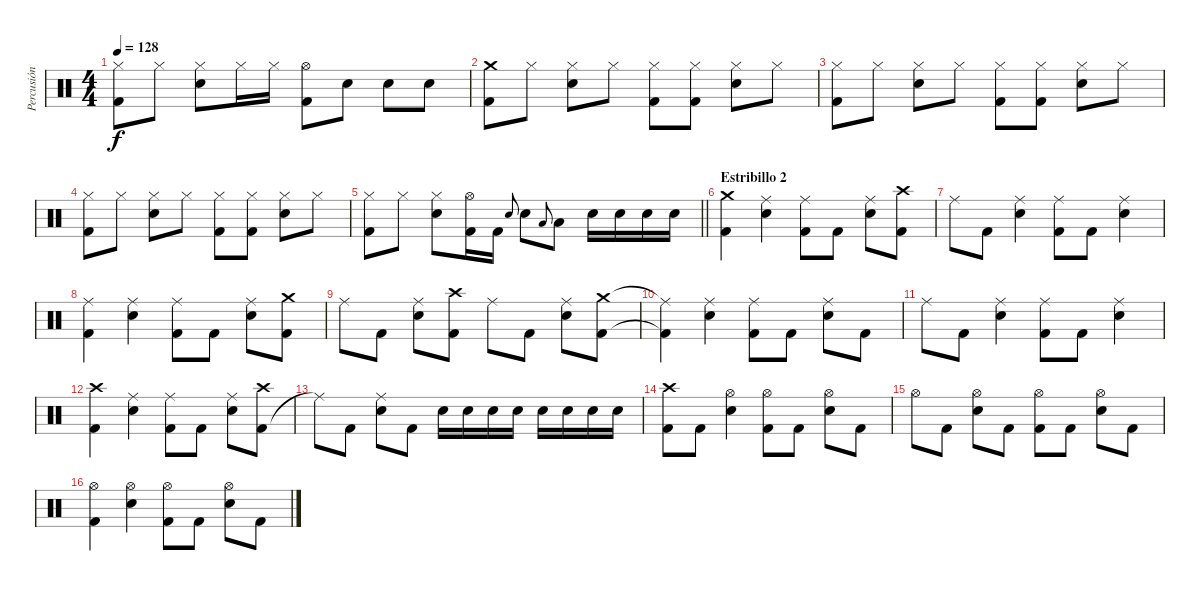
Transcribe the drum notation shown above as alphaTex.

\track ("Percusión" "Percusión") {instrument percussion}
\staff {score}
\articulation defaults
\ts (4 4)
\tempo 128
\clef neutral
\ks c
("Kick (hit) 2" "Hi-Hat (closed)").8{dy f} "Hi-Hat (closed)".8 ("Electric Snare (hit)" "Hi-Hat (closed)").8 "Hi-Hat (closed)".16 "Hi-Hat (closed)".16 ("Kick (hit) 2" "Hi-Hat (open)").8 "Electric Snare (hit)".8 "Electric Snare (hit)".8 "Electric Snare (hit)".8 |
("Kick (hit) 2" "Crash medium (hit)").8 "Hi-Hat (closed)".8 ("Electric Snare (hit)" "Hi-Hat (closed)").8 "Hi-Hat (closed)".8 ("Kick (hit) 2" "Hi-Hat (closed)").8 ("Kick (hit) 2" "Hi-Hat (closed)").8 ("Electric Snare (hit)" "Hi-Hat (closed)").8 "Hi-Hat (closed)".8 |
("Kick (hit) 2" "Hi-Hat (closed)").8 "Hi-Hat (closed)".8 ("Electric Snare (hit)" "Hi-Hat (closed)").8 "Hi-Hat (closed)".8 ("Kick (hit) 2" "Hi-Hat (closed)").8 ("Kick (hit) 2" "Hi-Hat (closed)").8 ("Electric Snare (hit)" "Hi-Hat (closed)").8 "Hi-Hat (closed)".8 |
("Kick (hit) 2" "Hi-Hat (closed)").8 "Hi-Hat (closed)".8 ("Electric Snare (hit)" "Hi-Hat (closed)").8 "Hi-Hat (closed)".8 ("Kick (hit) 2" "Hi-Hat (closed)").8 ("Kick (hit) 2" "Hi-Hat (closed)").8 ("Electric Snare (hit)" "Hi-Hat (closed)").8 "Hi-Hat (closed)".8 |
\barLineRight lightlight
("Kick (hit) 2" "Hi-Hat (closed)").8 "Hi-Hat (closed)".8 ("Electric Snare (hit)" "Hi-Hat (closed)").8 ("Kick (hit) 2" "Hi-Hat (open)").16 "Kick (hit) 2".16 "Electric Snare (hit)".8{gr onbeat} "Electric Snare (hit)".8 "Low Tom (hit)".8{gr onbeat} "Low Tom (hit)".8 "Electric Snare (hit)".16 "Electric Snare (hit)".16 "Electric Snare (hit)".16 "Electric Snare (hit)".16 |
\section ("" "Estribillo 2")
("Kick (hit) 2" "Crash medium (hit)").4 ("Electric Snare (hit)" "Ride (middle)").4 ("Kick (hit) 2" "Ride (middle)").8 "Kick (hit) 2".8 ("Electric Snare (hit)" "Ride (middle)").8 ("Kick (hit) 2" "Crash high (hit)").8 |
"Ride (middle)".8 "Kick (hit) 2".8 ("Electric Snare (hit)" "Ride (middle)").4 ("Kick (hit) 2" "Ride (middle)").8 "Kick (hit) 2".8 ("Electric Snare (hit)" "Ride (middle)").4 |
("Kick (hit) 2" "Ride (middle)").4 ("Electric Snare (hit)" "Ride (middle)").4 ("Kick (hit) 2" "Ride (middle)").8 "Kick (hit) 2".8 ("Electric Snare (hit)" "Ride (middle)").8 ("Kick (hit) 2" "Crash medium (hit)").8 |
"Ride (middle)".8 "Kick (hit) 2".8 ("Electric Snare (hit)" "Ride (middle)").8 ("Kick (hit) 2" "Crash high (hit)").8 "Ride (middle)".8 "Kick (hit) 2".8 ("Electric Snare (hit)" "Ride (middle)").8 ("Kick (hit) 2" "Crash medium (hit)").8 |
("Kick (hit) 2"{t} "Ride (middle)"{t}).4 ("Electric Snare (hit)" "Ride (middle)").4 ("Kick (hit) 2" "Ride (middle)").8 "Kick (hit) 2".8 ("Electric Snare (hit)" "Ride (middle)").8 "Kick (hit) 2".8 |
"Ride (middle)".8 "Kick (hit) 2".8 ("Electric Snare (hit)" "Ride (middle)").4 ("Kick (hit) 2" "Ride (middle)").8 "Kick (hit) 2".8 ("Electric Snare (hit)" "Ride (middle)").4 |
("Kick (hit) 2" "Crash high (hit)").4 ("Electric Snare (hit)" "Ride (middle)").4 ("Kick (hit) 2" "Ride (middle)").8 "Kick (hit) 2".8 ("Electric Snare (hit)" "Ride (middle)").8 ("Kick (hit) 2" "Crash high (hit)").8 |
"Ride (middle)"{t}.8 "Kick (hit) 2".8 ("Electric Snare (hit)" "Ride (middle)").8 "Kick (hit) 2".8 "Electric Snare (hit)".16 "Electric Snare (hit)".16 "Electric Snare (hit)".16 "Electric Snare (hit)".16 "Electric Snare (hit)".16 "Electric Snare (hit)".16 "Electric Snare (hit)".16 "Electric Snare (hit)".16 |
("Kick (hit) 2" "Crash high (hit)").8 "Kick (hit) 2".8 ("Electric Snare (hit)" "Hi-Hat (open)").4 ("Kick (hit) 2" "Hi-Hat (open)").8 "Kick (hit) 2".8 ("Electric Snare (hit)" "Hi-Hat (open)").8 "Kick (hit) 2".8 |
"Hi-Hat (open)".8 "Kick (hit) 2".8 ("Electric Snare (hit)" "Hi-Hat (open)").8 "Kick (hit) 2".8 ("Kick (hit) 2" "Hi-Hat (open)").8 "Kick (hit) 2".8 ("Electric Snare (hit)" "Hi-Hat (open)").8 "Kick (hit) 2".8 |
("Kick (hit) 2" "Hi-Hat (open)").4 ("Electric Snare (hit)" "Hi-Hat (open)").4 ("Kick (hit) 2" "Hi-Hat (open)").8 "Kick (hit) 2".8 ("Electric Snare (hit)" "Hi-Hat (open)").8 "Kick (hit) 2".8
